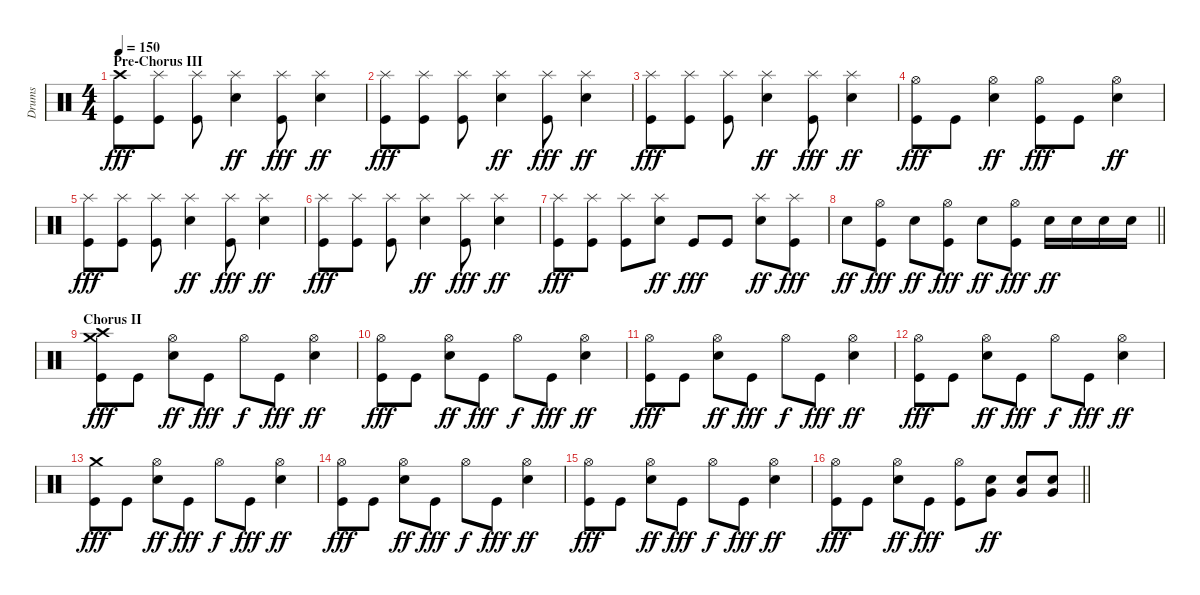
\track ("Drums" "Drums") {instrument percussion}
\staff {score}
\articulation defaults
\ts (4 4)
\section ("" "Pre-Chorus III")
\tempo 150
\clef neutral
\ks c
("Crash high (hit)" "Kick (hit)").8{dy fff} ("Splash (hit)" "Kick (hit)").8 ("Splash (hit)" "Kick (hit)").8 ("Splash (hit)" "Snare (hit) 2").4{dy ff} ("Splash (hit)" "Kick (hit)").8{dy fff} ("Splash (hit)" "Snare (hit) 2").4{dy ff} |
("Splash (hit)" "Kick (hit)").8{dy fff} ("Splash (hit)" "Kick (hit)").8 ("Splash (hit)" "Kick (hit)").8 ("Splash (hit)" "Snare (hit) 2").4{dy ff} ("Splash (hit)" "Kick (hit)").8{dy fff} ("Splash (hit)" "Snare (hit) 2").4{dy ff} |
("Splash (hit)" "Kick (hit)").8{dy fff} ("Splash (hit)" "Kick (hit)").8 ("Splash (hit)" "Kick (hit)").8 ("Splash (hit)" "Snare (hit) 2").4{dy ff} ("Splash (hit)" "Kick (hit)").8{dy fff} ("Splash (hit)" "Snare (hit) 2").4{dy ff} |
("Hi-Hat (open)" "Kick (hit)").8{dy fff} "Kick (hit)".8 ("Hi-Hat (open)" "Snare (hit) 2").4{dy ff} ("Hi-Hat (open)" "Kick (hit)").8{dy fff} "Kick (hit)".8 ("Hi-Hat (open)" "Snare (hit) 2").4{dy ff} |
("Splash (hit)" "Kick (hit)").8{dy fff} ("Splash (hit)" "Kick (hit)").8 ("Splash (hit)" "Kick (hit)").8 ("Splash (hit)" "Snare (hit) 2").4{dy ff} ("Splash (hit)" "Kick (hit)").8{dy fff} ("Splash (hit)" "Snare (hit) 2").4{dy ff} |
("Splash (hit)" "Kick (hit)").8{dy fff} ("Splash (hit)" "Kick (hit)").8 ("Splash (hit)" "Kick (hit)").8 ("Splash (hit)" "Snare (hit) 2").4{dy ff} ("Splash (hit)" "Kick (hit)").8{dy fff} ("Splash (hit)" "Snare (hit) 2").4{dy ff} |
("Splash (hit)" "Kick (hit)").8{dy fff} ("Splash (hit)" "Kick (hit)").8 ("Splash (hit)" "Kick (hit)").8 ("Splash (hit)" "Snare (hit) 2").8{dy ff} "Kick (hit)".8{dy fff} "Kick (hit)".8 ("Splash (hit)" "Snare (hit) 2").8{dy ff} ("Splash (hit)" "Kick (hit)").8{dy fff} |
\barLineRight lightlight "Snare (hit) 2".8{dy ff}
("Hi-Hat (open)" "Kick (hit)").8{dy fff} "Snare (hit) 2".8{dy ff} ("Hi-Hat (open)" "Kick (hit)").8{dy fff} "Snare (hit) 2".8{dy ff} ("Hi-Hat (open)" "Kick (hit)").8{dy fff} "Snare (hit) 2".16{dy ff} "Snare (hit) 2".16 "Snare (hit) 2".16 "Snare (hit) 2".16 |
\section ("" "Chorus II")
("Crash high (hit)" "Crash medium (hit)" "Kick (hit)").8{dy fff} "Kick (hit)".8 ("Hi-Hat (open)" "Snare (hit) 2").8{dy ff} "Kick (hit)".8{dy fff} "Hi-Hat (open)".8{dy f} "Kick (hit)".8{dy fff} ("Hi-Hat (open)" "Snare (hit) 2").4{dy ff} |
("Hi-Hat (open)" "Kick (hit)").8{dy fff} "Kick (hit)".8 ("Hi-Hat (open)" "Snare (hit) 2").8{dy ff} "Kick (hit)".8{dy fff} "Hi-Hat (open)".8{dy f} "Kick (hit)".8{dy fff} ("Hi-Hat (open)" "Snare (hit) 2").4{dy ff} |
("Hi-Hat (open)" "Kick (hit)").8{dy fff} "Kick (hit)".8 ("Hi-Hat (open)" "Snare (hit) 2").8{dy ff} "Kick (hit)".8{dy fff} "Hi-Hat (open)".8{dy f} "Kick (hit)".8{dy fff} ("Hi-Hat (open)" "Snare (hit) 2").4{dy ff} |
("Hi-Hat (open)" "Kick (hit)").8{dy fff} "Kick (hit)".8 ("Hi-Hat (open)" "Snare (hit) 2").8{dy ff} "Kick (hit)".8{dy fff} "Hi-Hat (open)".8{dy f} "Kick (hit)".8{dy fff} ("Hi-Hat (open)" "Snare (hit) 2").4{dy ff} |
("Crash medium (hit)" "Kick (hit)").8{dy fff} "Kick (hit)".8 ("Hi-Hat (open)" "Snare (hit) 2").8{dy ff} "Kick (hit)".8{dy fff} "Hi-Hat (open)".8{dy f} "Kick (hit)".8{dy fff} ("Hi-Hat (open)" "Snare (hit) 2").4{dy ff} |
("Hi-Hat (open)" "Kick (hit)").8{dy fff} "Kick (hit)".8 ("Hi-Hat (open)" "Snare (hit) 2").8{dy ff} "Kick (hit)".8{dy fff} "Hi-Hat (open)".8{dy f} "Kick (hit)".8{dy fff} ("Hi-Hat (open)" "Snare (hit) 2").4{dy ff} |
("Hi-Hat (open)" "Kick (hit)").8{dy fff} "Kick (hit)".8 ("Hi-Hat (open)" "Snare (hit) 2").8{dy ff} "Kick (hit)".8{dy fff} "Hi-Hat (open)".8{dy f} "Kick (hit)".8{dy fff} ("Hi-Hat (open)" "Snare (hit) 2").4{dy ff} |
\barLineRight lightlight
("Hi-Hat (open)" "Kick (hit)").8{dy fff} "Kick (hit)".8 ("Hi-Hat (open)" "Snare (hit) 2").8{dy ff} "Kick (hit)".8{dy fff} ("Hi-Hat (open)" "Kick (hit)").8 ("Snare (hit) 2" "Very Low Tom (hit)").8{dy ff} ("Snare (hit) 2" "Very Low Tom (hit)").8 ("Snare (hit) 2" "Very Low Tom (hit)").8
